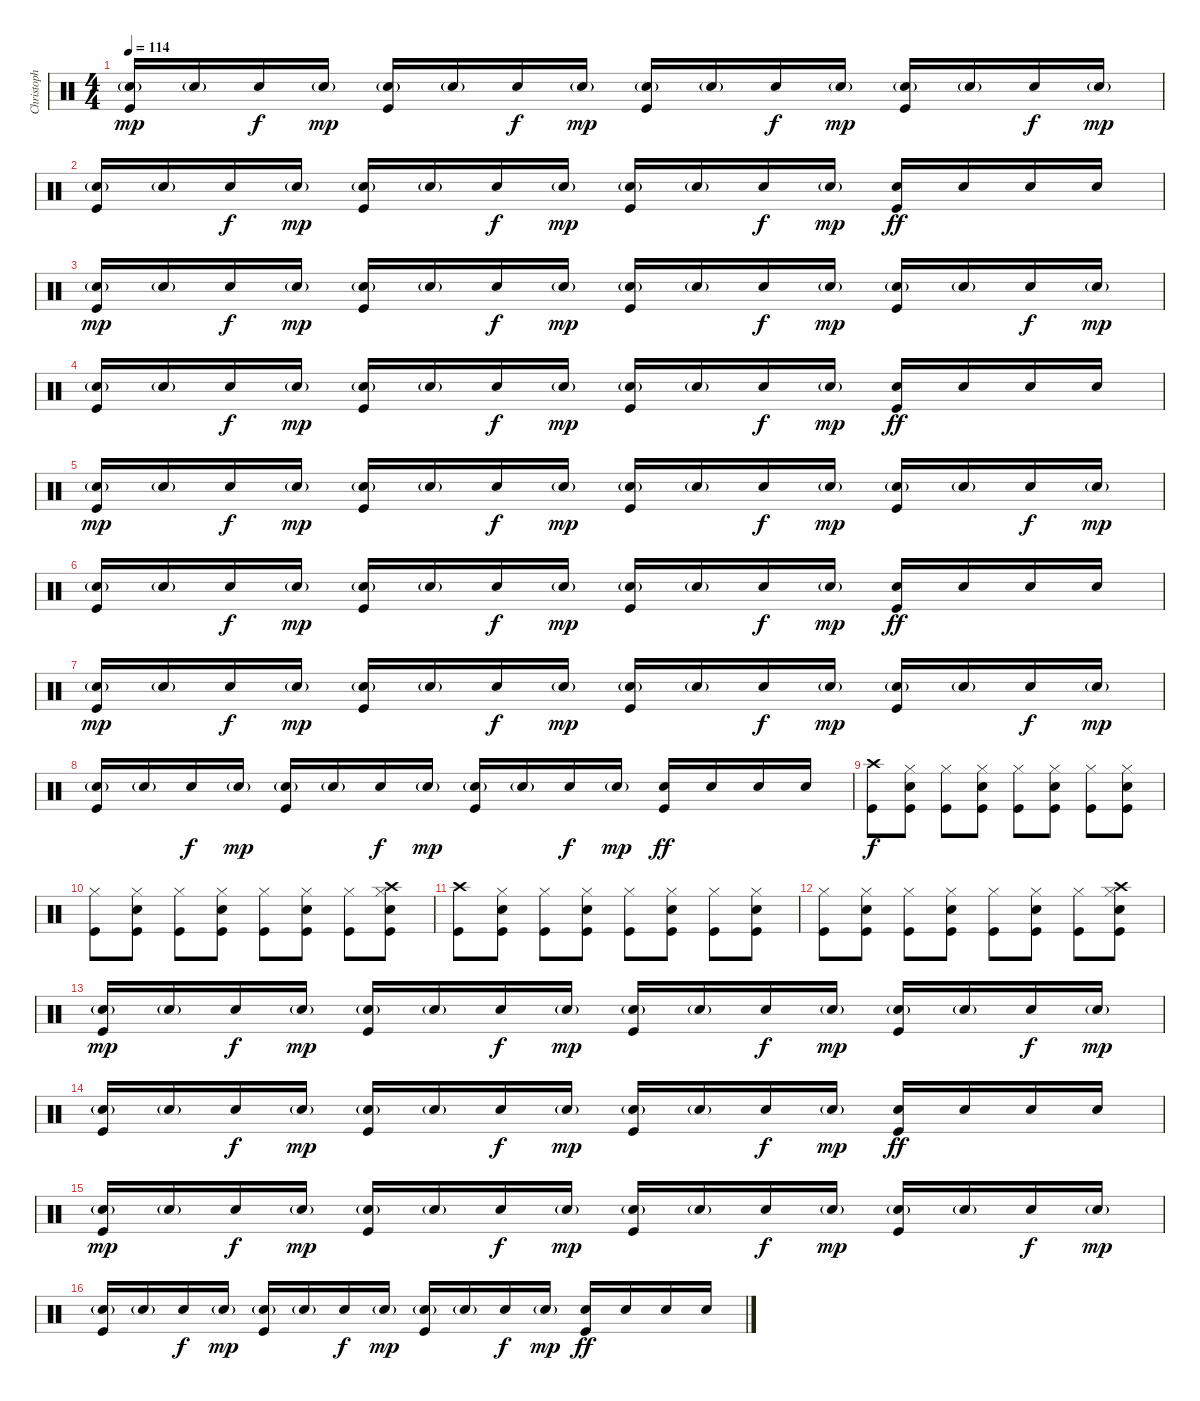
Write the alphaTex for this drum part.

\track ("Christoph - Drums" "Christoph ") {instrument percussion}
\staff {score}
\articulation defaults
\ts (4 4)
\tempo 114
\clef neutral
\ks c
("Snare (hit) 2"{g} "Kick (hit)").16{dy mp} "Snare (hit) 2"{g}.16 "Snare (hit) 2".16{dy f} "Snare (hit) 2"{g}.16{dy mp} ("Snare (hit) 2"{g} "Kick (hit)").16 "Snare (hit) 2"{g}.16 "Snare (hit) 2".16{dy f} "Snare (hit) 2"{g}.16{dy mp} ("Snare (hit) 2"{g} "Kick (hit)").16 "Snare (hit) 2"{g}.16 "Snare (hit) 2".16{dy f} "Snare (hit) 2"{g}.16{dy mp} ("Snare (hit) 2"{g} "Kick (hit)").16 "Snare (hit) 2"{g}.16 "Snare (hit) 2".16{dy f} "Snare (hit) 2"{g}.16{dy mp} |
("Snare (hit) 2"{g} "Kick (hit)").16 "Snare (hit) 2"{g}.16 "Snare (hit) 2".16{dy f} "Snare (hit) 2"{g}.16{dy mp} ("Snare (hit) 2"{g} "Kick (hit)").16 "Snare (hit) 2"{g}.16 "Snare (hit) 2".16{dy f} "Snare (hit) 2"{g}.16{dy mp} ("Snare (hit) 2"{g} "Kick (hit)").16 "Snare (hit) 2"{g}.16 "Snare (hit) 2".16{dy f} "Snare (hit) 2"{g}.16{dy mp} ("Snare (hit) 2" "Kick (hit)").16{dy ff} "Snare (hit) 2".16 "Snare (hit) 2".16 "Snare (hit) 2".16 |
("Snare (hit) 2"{g} "Kick (hit)").16{dy mp} "Snare (hit) 2"{g}.16 "Snare (hit) 2".16{dy f} "Snare (hit) 2"{g}.16{dy mp} ("Snare (hit) 2"{g} "Kick (hit)").16 "Snare (hit) 2"{g}.16 "Snare (hit) 2".16{dy f} "Snare (hit) 2"{g}.16{dy mp} ("Snare (hit) 2"{g} "Kick (hit)").16 "Snare (hit) 2"{g}.16 "Snare (hit) 2".16{dy f} "Snare (hit) 2"{g}.16{dy mp} ("Snare (hit) 2"{g} "Kick (hit)").16 "Snare (hit) 2"{g}.16 "Snare (hit) 2".16{dy f} "Snare (hit) 2"{g}.16{dy mp} |
("Snare (hit) 2"{g} "Kick (hit)").16 "Snare (hit) 2"{g}.16 "Snare (hit) 2".16{dy f} "Snare (hit) 2"{g}.16{dy mp} ("Snare (hit) 2"{g} "Kick (hit)").16 "Snare (hit) 2"{g}.16 "Snare (hit) 2".16{dy f} "Snare (hit) 2"{g}.16{dy mp} ("Snare (hit) 2"{g} "Kick (hit)").16 "Snare (hit) 2"{g}.16 "Snare (hit) 2".16{dy f} "Snare (hit) 2"{g}.16{dy mp} ("Snare (hit) 2" "Kick (hit)").16{dy ff} "Snare (hit) 2".16 "Snare (hit) 2".16 "Snare (hit) 2".16 |
("Snare (hit) 2"{g} "Kick (hit)").16{dy mp} "Snare (hit) 2"{g}.16 "Snare (hit) 2".16{dy f} "Snare (hit) 2"{g}.16{dy mp} ("Snare (hit) 2"{g} "Kick (hit)").16 "Snare (hit) 2"{g}.16 "Snare (hit) 2".16{dy f} "Snare (hit) 2"{g}.16{dy mp} ("Snare (hit) 2"{g} "Kick (hit)").16 "Snare (hit) 2"{g}.16 "Snare (hit) 2".16{dy f} "Snare (hit) 2"{g}.16{dy mp} ("Snare (hit) 2"{g} "Kick (hit)").16 "Snare (hit) 2"{g}.16 "Snare (hit) 2".16{dy f} "Snare (hit) 2"{g}.16{dy mp} |
("Snare (hit) 2"{g} "Kick (hit)").16 "Snare (hit) 2"{g}.16 "Snare (hit) 2".16{dy f} "Snare (hit) 2"{g}.16{dy mp} ("Snare (hit) 2"{g} "Kick (hit)").16 "Snare (hit) 2"{g}.16 "Snare (hit) 2".16{dy f} "Snare (hit) 2"{g}.16{dy mp} ("Snare (hit) 2"{g} "Kick (hit)").16 "Snare (hit) 2"{g}.16 "Snare (hit) 2".16{dy f} "Snare (hit) 2"{g}.16{dy mp} ("Snare (hit) 2" "Kick (hit)").16{dy ff} "Snare (hit) 2".16 "Snare (hit) 2".16 "Snare (hit) 2".16 |
("Snare (hit) 2"{g} "Kick (hit)").16{dy mp} "Snare (hit) 2"{g}.16 "Snare (hit) 2".16{dy f} "Snare (hit) 2"{g}.16{dy mp} ("Snare (hit) 2"{g} "Kick (hit)").16 "Snare (hit) 2"{g}.16 "Snare (hit) 2".16{dy f} "Snare (hit) 2"{g}.16{dy mp} ("Snare (hit) 2"{g} "Kick (hit)").16 "Snare (hit) 2"{g}.16 "Snare (hit) 2".16{dy f} "Snare (hit) 2"{g}.16{dy mp} ("Snare (hit) 2"{g} "Kick (hit)").16 "Snare (hit) 2"{g}.16 "Snare (hit) 2".16{dy f} "Snare (hit) 2"{g}.16{dy mp} |
("Snare (hit) 2"{g} "Kick (hit)").16 "Snare (hit) 2"{g}.16 "Snare (hit) 2".16{dy f} "Snare (hit) 2"{g}.16{dy mp} ("Snare (hit) 2"{g} "Kick (hit)").16 "Snare (hit) 2"{g}.16 "Snare (hit) 2".16{dy f} "Snare (hit) 2"{g}.16{dy mp} ("Snare (hit) 2"{g} "Kick (hit)").16 "Snare (hit) 2"{g}.16 "Snare (hit) 2".16{dy f} "Snare (hit) 2"{g}.16{dy mp} ("Snare (hit) 2" "Kick (hit)").16{dy ff} "Snare (hit) 2".16 "Snare (hit) 2".16 "Snare (hit) 2".16 |
("Crash high (hit)" "Kick (hit)").8{dy f} ("Hi-Hat (closed)" "Snare (hit) 2" "Kick (hit)").8 ("Hi-Hat (closed)" "Kick (hit)").8 ("Hi-Hat (closed)" "Snare (hit) 2" "Kick (hit)").8 ("Hi-Hat (closed)" "Kick (hit)").8 ("Hi-Hat (closed)" "Snare (hit) 2" "Kick (hit)").8 ("Hi-Hat (closed)" "Kick (hit)").8 ("Hi-Hat (closed)" "Snare (hit) 2" "Kick (hit)").8 |
("Hi-Hat (closed)" "Kick (hit)").8 ("Hi-Hat (closed)" "Snare (hit) 2" "Kick (hit)").8 ("Hi-Hat (closed)" "Kick (hit)").8 ("Hi-Hat (closed)" "Snare (hit) 2" "Kick (hit)").8 ("Hi-Hat (closed)" "Kick (hit)").8 ("Hi-Hat (closed)" "Snare (hit) 2" "Kick (hit)").8 ("Hi-Hat (closed)" "Kick (hit)").8 ("Crash high (hit)" "Hi-Hat (closed)" "Snare (hit) 2" "Kick (hit)").8 |
("Crash high (hit)" "Kick (hit)").8 ("Hi-Hat (closed)" "Snare (hit) 2" "Kick (hit)").8 ("Hi-Hat (closed)" "Kick (hit)").8 ("Hi-Hat (closed)" "Snare (hit) 2" "Kick (hit)").8 ("Hi-Hat (closed)" "Kick (hit)").8 ("Hi-Hat (closed)" "Snare (hit) 2" "Kick (hit)").8 ("Hi-Hat (closed)" "Kick (hit)").8 ("Hi-Hat (closed)" "Snare (hit) 2" "Kick (hit)").8 |
("Hi-Hat (closed)" "Kick (hit)").8 ("Hi-Hat (closed)" "Snare (hit) 2" "Kick (hit)").8 ("Hi-Hat (closed)" "Kick (hit)").8 ("Hi-Hat (closed)" "Snare (hit) 2" "Kick (hit)").8 ("Hi-Hat (closed)" "Kick (hit)").8 ("Hi-Hat (closed)" "Snare (hit) 2" "Kick (hit)").8 ("Hi-Hat (closed)" "Kick (hit)").8 ("Crash high (hit)" "Hi-Hat (closed)" "Snare (hit) 2" "Kick (hit)").8 |
("Snare (hit) 2"{g} "Kick (hit)").16{dy mp} "Snare (hit) 2"{g}.16 "Snare (hit) 2".16{dy f} "Snare (hit) 2"{g}.16{dy mp} ("Snare (hit) 2"{g} "Kick (hit)").16 "Snare (hit) 2"{g}.16 "Snare (hit) 2".16{dy f} "Snare (hit) 2"{g}.16{dy mp} ("Snare (hit) 2"{g} "Kick (hit)").16 "Snare (hit) 2"{g}.16 "Snare (hit) 2".16{dy f} "Snare (hit) 2"{g}.16{dy mp} ("Snare (hit) 2"{g} "Kick (hit)").16 "Snare (hit) 2"{g}.16 "Snare (hit) 2".16{dy f} "Snare (hit) 2"{g}.16{dy mp} |
("Snare (hit) 2"{g} "Kick (hit)").16 "Snare (hit) 2"{g}.16 "Snare (hit) 2".16{dy f} "Snare (hit) 2"{g}.16{dy mp} ("Snare (hit) 2"{g} "Kick (hit)").16 "Snare (hit) 2"{g}.16 "Snare (hit) 2".16{dy f} "Snare (hit) 2"{g}.16{dy mp} ("Snare (hit) 2"{g} "Kick (hit)").16 "Snare (hit) 2"{g}.16 "Snare (hit) 2".16{dy f} "Snare (hit) 2"{g}.16{dy mp} ("Snare (hit) 2" "Kick (hit)").16{dy ff} "Snare (hit) 2".16 "Snare (hit) 2".16 "Snare (hit) 2".16 |
("Snare (hit) 2"{g} "Kick (hit)").16{dy mp} "Snare (hit) 2"{g}.16 "Snare (hit) 2".16{dy f} "Snare (hit) 2"{g}.16{dy mp} ("Snare (hit) 2"{g} "Kick (hit)").16 "Snare (hit) 2"{g}.16 "Snare (hit) 2".16{dy f} "Snare (hit) 2"{g}.16{dy mp} ("Snare (hit) 2"{g} "Kick (hit)").16 "Snare (hit) 2"{g}.16 "Snare (hit) 2".16{dy f} "Snare (hit) 2"{g}.16{dy mp} ("Snare (hit) 2"{g} "Kick (hit)").16 "Snare (hit) 2"{g}.16 "Snare (hit) 2".16{dy f} "Snare (hit) 2"{g}.16{dy mp} |
("Snare (hit) 2"{g} "Kick (hit)").16 "Snare (hit) 2"{g}.16 "Snare (hit) 2".16{dy f} "Snare (hit) 2"{g}.16{dy mp} ("Snare (hit) 2"{g} "Kick (hit)").16 "Snare (hit) 2"{g}.16 "Snare (hit) 2".16{dy f} "Snare (hit) 2"{g}.16{dy mp} ("Snare (hit) 2"{g} "Kick (hit)").16 "Snare (hit) 2"{g}.16 "Snare (hit) 2".16{dy f} "Snare (hit) 2"{g}.16{dy mp} ("Snare (hit) 2" "Kick (hit)").16{dy ff} "Snare (hit) 2".16 "Snare (hit) 2".16 "Snare (hit) 2".16
